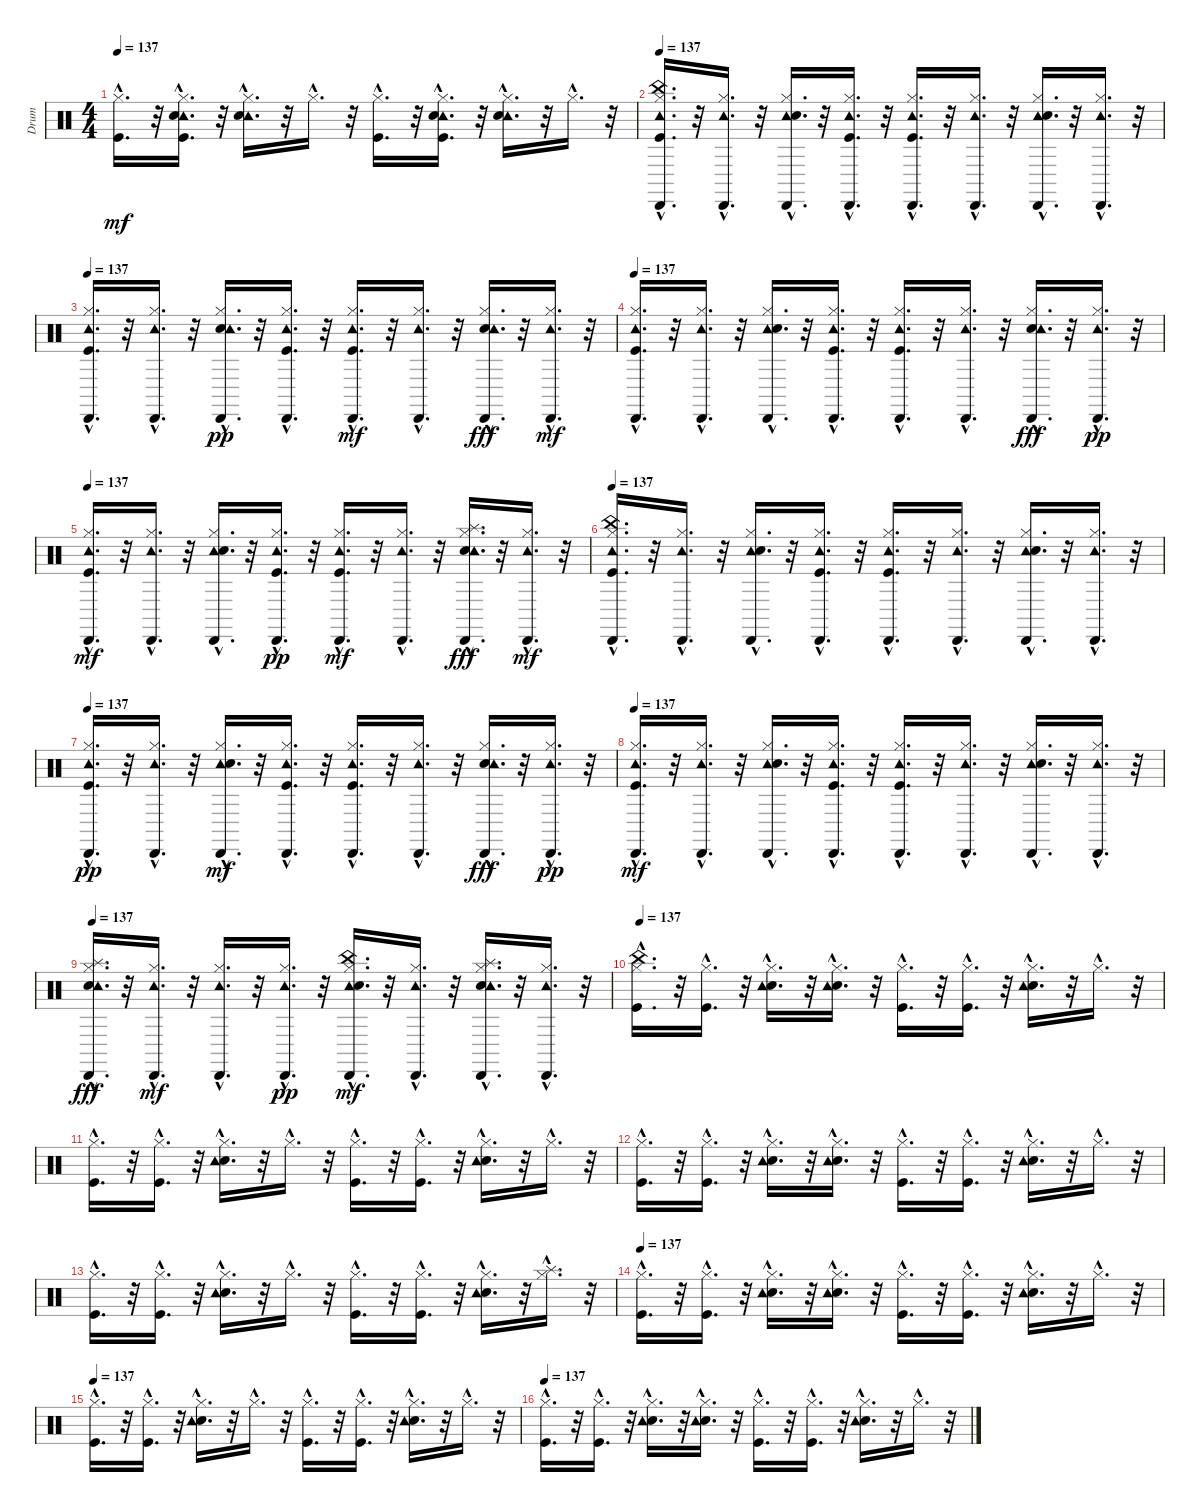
\track ("Drum" "Drum") {instrument percussion}
\staff {score}
\articulation defaults
\ts (4 4)
\tempo 137
\clef neutral
\ks c
("Hi-Hat (closed)"{hac} "Kick (hit)"{hac}).16{d dy mf} r.32 ("Hi-Hat (closed)"{hac} "Tambourine (hit)"{hac} "Kick (hit)"{hac} "Snare (hit) 2"{hac}).16{d} r.32 ("Tambourine (hit)"{hac} "Hi-Hat (closed)"{hac} "Snare (hit) 2"{hac}).16{d} r.32 "Hi-Hat (closed)"{hac}.16{d} r.32 ("Hi-Hat (closed)"{hac} "Kick (hit)"{hac}).16{d} r.32 ("Tambourine (hit)"{hac} "Snare (hit) 2"{hac} "Kick (hit)"{hac} "Hi-Hat (closed)"{hac}).16{d} r.32 ("Tambourine (hit)"{hac} "Hi-Hat (closed)"{hac} "Snare (hit) 2"{hac}).16{d} r.32 "Hi-Hat (closed)"{hac}.16{d} r.32 |
\tempo 137
("Hi-Hat (closed)"{hac} "Kick (hit)"{hac} "Tambourine (hit)"{hac} "Cabasa (hit)"{hac} "China (hit)"{hac}).16{d} r.32 ("Hi-Hat (closed)"{hac} "Tambourine (hit)"{hac} "Cabasa (hit)"{hac}).16{d} r.32 ("Tambourine (hit)"{hac} "Hi-Hat (closed)"{hac} "Snare (hit) 2"{hac} "Cabasa (hit)"{hac}).16{d} r.32 ("Tambourine (hit)"{hac} "Hi-Hat (closed)"{hac} "Cabasa (hit)"{hac} "Kick (hit)"{hac}).16{d} r.32 ("Hi-Hat (closed)"{hac} "Kick (hit)"{hac} "Tambourine (hit)"{hac} "Cabasa (hit)"{hac}).16{d} r.32 ("Hi-Hat (closed)"{hac} "Tambourine (hit)"{hac} "Cabasa (hit)"{hac}).16{d} r.32 ("Tambourine (hit)"{hac} "Hi-Hat (closed)"{hac} "Snare (hit) 2"{hac} "Cabasa (hit)"{hac}).16{d} r.32 ("Hi-Hat (closed)"{hac} "Tambourine (hit)"{hac} "Cabasa (hit)"{hac}).16{d} r.32 |
\tempo 137
("Cabasa (hit)"{hac} "Tambourine (hit)"{hac} "Kick (hit)"{hac} "Hi-Hat (closed)"{hac}).16{d} r.32 ("Cabasa (hit)"{hac} "Tambourine (hit)"{hac} "Hi-Hat (closed)"{hac}).16{d} r.32 ("Cabasa (hit)"{hac} "Snare (hit) 2"{hac} "Hi-Hat (closed)"{hac} "Tambourine (hit)"{hac}).16{d dy pp} r.32 ("Kick (hit)"{hac} "Cabasa (hit)"{hac} "Hi-Hat (closed)"{hac} "Tambourine (hit)"{hac}).16{d} r.32 ("Cabasa (hit)"{hac} "Tambourine (hit)"{hac} "Kick (hit)"{hac} "Hi-Hat (closed)"{hac}).16{d dy mf} r.32 ("Cabasa (hit)"{hac} "Tambourine (hit)"{hac} "Hi-Hat (closed)"{hac}).16{d} r.32 ("Cabasa (hit)"{hac} "Snare (hit) 2"{hac} "Hi-Hat (closed)"{hac} "Tambourine (hit)"{hac}).16{d dy fff} r.32 ("Cabasa (hit)"{hac} "Tambourine (hit)"{hac} "Hi-Hat (closed)"{hac}).16{d dy mf} r.32 |
\tempo 137
("Tambourine (hit)"{hac} "Kick (hit)"{hac} "Hi-Hat (closed)"{hac} "Cabasa (hit)"{hac}).16{d} r.32 ("Tambourine (hit)"{hac} "Cabasa (hit)"{hac} "Hi-Hat (closed)"{hac}).16{d} r.32 ("Tambourine (hit)"{hac} "Cabasa (hit)"{hac} "Hi-Hat (closed)"{hac} "Snare (hit) 2"{hac}).16{d} r.32 ("Kick (hit)"{hac} "Hi-Hat (closed)"{hac} "Tambourine (hit)"{hac} "Cabasa (hit)"{hac}).16{d} r.32 ("Hi-Hat (closed)"{hac} "Tambourine (hit)"{hac} "Cabasa (hit)"{hac} "Kick (hit)"{hac}).16{d} r.32 ("Tambourine (hit)"{hac} "Cabasa (hit)"{hac} "Hi-Hat (closed)"{hac}).16{d} r.32 ("Cabasa (hit)"{hac} "Snare (hit) 2"{hac} "Hi-Hat (closed)"{hac} "Tambourine (hit)"{hac}).16{d dy fff} r.32 ("Cabasa (hit)"{hac} "Hi-Hat (closed)"{hac} "Tambourine (hit)"{hac}).16{d dy pp} r.32 |
\tempo 137
("Cabasa (hit)"{hac} "Tambourine (hit)"{hac} "Kick (hit)"{hac} "Hi-Hat (closed)"{hac}).16{d dy mf} r.32 ("Tambourine (hit)"{hac} "Hi-Hat (closed)"{hac} "Cabasa (hit)"{hac}).16{d} r.32 ("Hi-Hat (closed)"{hac} "Tambourine (hit)"{hac} "Snare (hit) 2"{hac} "Cabasa (hit)"{hac}).16{d} r.32 ("Kick (hit)"{hac} "Cabasa (hit)"{hac} "Hi-Hat (closed)"{hac} "Tambourine (hit)"{hac}).16{d dy pp} r.32 ("Cabasa (hit)"{hac} "Tambourine (hit)"{hac} "Kick (hit)"{hac} "Hi-Hat (closed)"{hac}).16{d dy mf} r.32 ("Tambourine (hit)"{hac} "Hi-Hat (closed)"{hac} "Cabasa (hit)"{hac}).16{d} r.32 ("Splash (hit)"{hac} "Cabasa (hit)"{hac} "Snare (hit) 2"{hac} "Hi-Hat (closed)"{hac} "Tambourine (hit)"{hac}).16{d dy fff} r.32 ("Hi-Hat (closed)"{hac} "Tambourine (hit)"{hac} "Cabasa (hit)"{hac}).16{d dy mf} r.32 |
\tempo 137
("Hi-Hat (closed)"{hac} "Kick (hit)"{hac} "Tambourine (hit)"{hac} "Cabasa (hit)"{hac} "China (hit)"{hac}).16{d} r.32 ("Hi-Hat (closed)"{hac} "Tambourine (hit)"{hac} "Cabasa (hit)"{hac}).16{d} r.32 ("Tambourine (hit)"{hac} "Hi-Hat (closed)"{hac} "Snare (hit) 2"{hac} "Cabasa (hit)"{hac}).16{d} r.32 ("Tambourine (hit)"{hac} "Hi-Hat (closed)"{hac} "Cabasa (hit)"{hac} "Kick (hit)"{hac}).16{d} r.32 ("Hi-Hat (closed)"{hac} "Kick (hit)"{hac} "Tambourine (hit)"{hac} "Cabasa (hit)"{hac}).16{d} r.32 ("Hi-Hat (closed)"{hac} "Tambourine (hit)"{hac} "Cabasa (hit)"{hac}).16{d} r.32 ("Tambourine (hit)"{hac} "Hi-Hat (closed)"{hac} "Snare (hit) 2"{hac} "Cabasa (hit)"{hac}).16{d} r.32 ("Hi-Hat (closed)"{hac} "Tambourine (hit)"{hac} "Cabasa (hit)"{hac}).16{d} r.32 |
\tempo 137
("Hi-Hat (closed)"{hac} "Cabasa (hit)"{hac} "Kick (hit)"{hac} "Tambourine (hit)"{hac}).16{d dy pp} r.32 ("Hi-Hat (closed)"{hac} "Cabasa (hit)"{hac} "Tambourine (hit)"{hac}).16{d} r.32 ("Tambourine (hit)"{hac} "Snare (hit) 2"{hac} "Hi-Hat (closed)"{hac} "Cabasa (hit)"{hac}).16{d dy mf} r.32 ("Kick (hit)"{hac} "Cabasa (hit)"{hac} "Tambourine (hit)"{hac} "Hi-Hat (closed)"{hac}).16{d} r.32 ("Cabasa (hit)"{hac} "Tambourine (hit)"{hac} "Hi-Hat (closed)"{hac} "Kick (hit)"{hac}).16{d} r.32 ("Tambourine (hit)"{hac} "Cabasa (hit)"{hac} "Hi-Hat (closed)"{hac}).16{d} r.32 ("Hi-Hat (closed)"{hac} "Snare (hit) 2"{hac} "Cabasa (hit)"{hac} "Tambourine (hit)"{hac}).16{d dy fff} r.32 ("Hi-Hat (closed)"{hac} "Cabasa (hit)"{hac} "Tambourine (hit)"{hac}).16{d dy pp} r.32 |
\tempo 137
("Hi-Hat (closed)"{hac} "Kick (hit)"{hac} "Tambourine (hit)"{hac} "Cabasa (hit)"{hac}).16{d dy mf} r.32 ("Hi-Hat (closed)"{hac} "Tambourine (hit)"{hac} "Cabasa (hit)"{hac}).16{d} r.32 ("Tambourine (hit)"{hac} "Hi-Hat (closed)"{hac} "Snare (hit) 2"{hac} "Cabasa (hit)"{hac}).16{d} r.32 ("Tambourine (hit)"{hac} "Hi-Hat (closed)"{hac} "Cabasa (hit)"{hac} "Kick (hit)"{hac}).16{d} r.32 ("Hi-Hat (closed)"{hac} "Kick (hit)"{hac} "Tambourine (hit)"{hac} "Cabasa (hit)"{hac}).16{d} r.32 ("Hi-Hat (closed)"{hac} "Tambourine (hit)"{hac} "Cabasa (hit)"{hac}).16{d} r.32 ("Tambourine (hit)"{hac} "Hi-Hat (closed)"{hac} "Snare (hit) 2"{hac} "Cabasa (hit)"{hac}).16{d} r.32 ("Hi-Hat (closed)"{hac} "Tambourine (hit)"{hac} "Cabasa (hit)"{hac}).16{d} r.32 |
\tempo 137
("Snare (hit) 2"{hac} "Splash (hit)"{hac} "Hi-Hat (closed)"{hac} "Cabasa (hit)"{hac} "Tambourine (hit)"{hac}).16{d dy fff} r.32 ("Tambourine (hit)"{hac} "Cabasa (hit)"{hac} "Hi-Hat (closed)"{hac}).16{d dy mf} r.32 ("Tambourine (hit)"{hac} "Cabasa (hit)"{hac} "Hi-Hat (closed)"{hac}).16{d} r.32 ("Cabasa (hit)"{hac} "Hi-Hat (closed)"{hac} "Tambourine (hit)"{hac}).16{d dy pp} r.32 ("Cabasa (hit)"{hac} "China (hit)"{hac} "Tambourine (hit)"{hac} "Hi-Hat (closed)"{hac} "Snare (hit) 2"{hac}).16{d dy mf} r.32 ("Cabasa (hit)"{hac} "Tambourine (hit)"{hac} "Hi-Hat (closed)"{hac}).16{d} r.32 ("Splash (hit)"{hac} "Snare (hit) 2"{hac} "Cabasa (hit)"{hac} "Tambourine (hit)"{hac} "Hi-Hat (closed)"{hac}).16{d} r.32 ("Tambourine (hit)"{hac} "Cabasa (hit)"{hac} "Hi-Hat (closed)"{hac}).16{d} r.32 |
\tempo 137
("China (hit)"{hac} "Kick (hit)"{hac} "Hi-Hat (closed)"{hac}).16{d} r.32 ("Kick (hit)"{hac} "Hi-Hat (closed)"{hac}).16{d} r.32 ("Snare (hit) 2"{hac} "Hi-Hat (closed)"{hac} "Tambourine (hit)"{hac}).16{d} r.32 ("Snare (hit) 2"{hac} "Hi-Hat (closed)"{hac} "Tambourine (hit)"{hac}).16{d} r.32 ("Kick (hit)"{hac} "Hi-Hat (closed)"{hac}).16{d} r.32 ("Kick (hit)"{hac} "Hi-Hat (closed)"{hac}).16{d} r.32 ("Snare (hit) 2"{hac} "Hi-Hat (closed)"{hac} "Tambourine (hit)"{hac}).16{d} r.32 "Hi-Hat (closed)"{hac}.16{d} r.32 |
("Kick (hit)"{hac} "Hi-Hat (closed)"{hac}).16{d} r.32 ("Kick (hit)"{hac} "Hi-Hat (closed)"{hac}).16{d} r.32 ("Snare (hit) 2"{hac} "Hi-Hat (closed)"{hac} "Tambourine (hit)"{hac}).16{d} r.32 "Hi-Hat (closed)"{hac}.16{d} r.32 ("Kick (hit)"{hac} "Hi-Hat (closed)"{hac}).16{d} r.32 ("Kick (hit)"{hac} "Hi-Hat (closed)"{hac}).16{d} r.32 ("Snare (hit) 2"{hac} "Hi-Hat (closed)"{hac} "Tambourine (hit)"{hac}).16{d} r.32 "Hi-Hat (closed)"{hac}.16{d} r.32 |
("Kick (hit)"{hac} "Hi-Hat (closed)"{hac}).16{d} r.32 ("Hi-Hat (closed)"{hac} "Kick (hit)"{hac}).16{d} r.32 ("Snare (hit) 2"{hac} "Hi-Hat (closed)"{hac} "Tambourine (hit)"{hac}).16{d} r.32 ("Hi-Hat (closed)"{hac} "Snare (hit) 2"{hac} "Tambourine (hit)"{hac}).16{d} r.32 ("Kick (hit)"{hac} "Hi-Hat (closed)"{hac}).16{d} r.32 ("Hi-Hat (closed)"{hac} "Kick (hit)"{hac}).16{d} r.32 ("Hi-Hat (closed)"{hac} "Snare (hit) 2"{hac} "Tambourine (hit)"{hac}).16{d} r.32 "Hi-Hat (closed)"{hac}.16{d} r.32 |
("Kick (hit)"{hac} "Hi-Hat (closed)"{hac}).16{d} r.32 ("Kick (hit)"{hac} "Hi-Hat (closed)"{hac}).16{d} r.32 ("Snare (hit) 2"{hac} "Hi-Hat (closed)"{hac} "Tambourine (hit)"{hac}).16{d} r.32 "Hi-Hat (closed)"{hac}.16{d} r.32 ("Kick (hit)"{hac} "Hi-Hat (closed)"{hac}).16{d} r.32 ("Kick (hit)"{hac} "Hi-Hat (closed)"{hac}).16{d} r.32 ("Hi-Hat (closed)"{hac} "Snare (hit) 2"{hac} "Tambourine (hit)"{hac}).16{d} r.32 ("Hi-Hat (closed)"{hac} "Splash (hit)"{hac}).16{d} r.32 |
\tempo 137
("Kick (hit)"{hac} "Hi-Hat (closed)"{hac}).16{d} r.32 ("Kick (hit)"{hac} "Hi-Hat (closed)"{hac}).16{d} r.32 ("Snare (hit) 2"{hac} "Hi-Hat (closed)"{hac} "Tambourine (hit)"{hac}).16{d} r.32 ("Snare (hit) 2"{hac} "Hi-Hat (closed)"{hac} "Tambourine (hit)"{hac}).16{d} r.32 ("Kick (hit)"{hac} "Hi-Hat (closed)"{hac}).16{d} r.32 ("Kick (hit)"{hac} "Hi-Hat (closed)"{hac}).16{d} r.32 ("Snare (hit) 2"{hac} "Hi-Hat (closed)"{hac} "Tambourine (hit)"{hac}).16{d} r.32 "Hi-Hat (closed)"{hac}.16{d} r.32 |
\tempo 137
("Kick (hit)"{hac} "Hi-Hat (closed)"{hac}).16{d} r.32 ("Kick (hit)"{hac} "Hi-Hat (closed)"{hac}).16{d} r.32 ("Snare (hit) 2"{hac} "Hi-Hat (closed)"{hac} "Tambourine (hit)"{hac}).16{d} r.32 "Hi-Hat (closed)"{hac}.16{d} r.32 ("Kick (hit)"{hac} "Hi-Hat (closed)"{hac}).16{d} r.32 ("Kick (hit)"{hac} "Hi-Hat (closed)"{hac}).16{d} r.32 ("Snare (hit) 2"{hac} "Hi-Hat (closed)"{hac} "Tambourine (hit)"{hac}).16{d} r.32 "Hi-Hat (closed)"{hac}.16{d} r.32 |
\tempo 137
("Kick (hit)"{hac} "Hi-Hat (closed)"{hac}).16{d} r.32 ("Kick (hit)"{hac} "Hi-Hat (closed)"{hac}).16{d} r.32 ("Snare (hit) 2"{hac} "Hi-Hat (closed)"{hac} "Tambourine (hit)"{hac}).16{d} r.32 ("Hi-Hat (closed)"{hac} "Snare (hit) 2"{hac} "Tambourine (hit)"{hac}).16{d} r.32 ("Hi-Hat (closed)"{hac} "Kick (hit)"{hac}).16{d} r.32 ("Hi-Hat (closed)"{hac} "Kick (hit)"{hac}).16{d} r.32 ("Hi-Hat (closed)"{hac} "Snare (hit) 2"{hac} "Tambourine (hit)"{hac}).16{d} r.32 "Hi-Hat (closed)"{hac}.16{d} r.32
